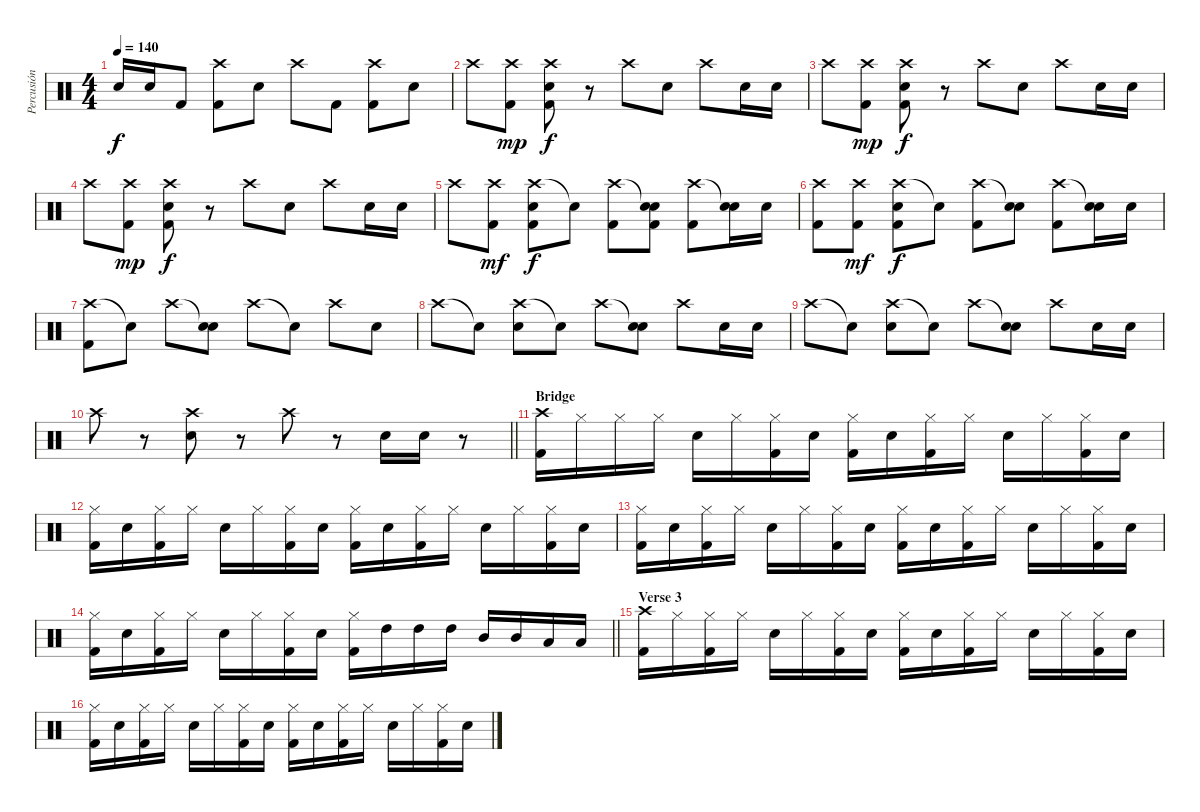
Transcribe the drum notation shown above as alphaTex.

\track ("Percusión" "Percusión") {instrument percussion}
\staff {score}
\articulation defaults
\ts (4 4)
\tempo 140
\clef neutral
\ks c "Electric Snare (hit)".16{dy f} "Electric Snare (hit)".16 "Kick (hit) 2".8
("Crash high (hit)" "Kick (hit) 2").8 "Electric Snare (hit)".8 "Crash high (hit)".8 "Kick (hit) 2".8 ("Crash high (hit)" "Kick (hit) 2").8 "Electric Snare (hit)".8 |
"Crash high (hit)".8 ("Crash high (hit)" "Kick (hit) 2").8{dy mp} ("Crash high (hit)" "Electric Snare (hit)" "Kick (hit) 2").8{dy f} r.8 "Crash high (hit)".8 "Electric Snare (hit)".8 "Crash high (hit)".8 "Electric Snare (hit)".16 "Electric Snare (hit)".16 |
"Crash high (hit)".8 ("Crash high (hit)" "Kick (hit) 2").8{dy mp} ("Crash high (hit)" "Electric Snare (hit)" "Kick (hit) 2").8{dy f} r.8 "Crash high (hit)".8 "Electric Snare (hit)".8 "Crash high (hit)".8 "Electric Snare (hit)".16 "Electric Snare (hit)".16 |
"Crash high (hit)".8 ("Crash high (hit)" "Kick (hit) 2").8{dy mp} ("Crash high (hit)" "Electric Snare (hit)" "Kick (hit) 2").8{dy f} r.8 "Crash high (hit)".8 "Electric Snare (hit)".8 "Crash high (hit)".8 "Electric Snare (hit)".16 "Electric Snare (hit)".16 |
"Crash high (hit)".8 ("Crash high (hit)" "Kick (hit) 2").8{dy mf} ("Crash high (hit)" "Electric Snare (hit)" "Kick (hit) 2").8{dy f} "Snare (hit)"{t}.8 ("Crash high (hit)" "Kick (hit) 2").8 ("Snare (hit)"{t} "Electric Snare (hit)" "Kick (hit) 2").8 ("Crash high (hit)" "Kick (hit) 2").8 ("Snare (hit)"{t} "Electric Snare (hit)").16 "Electric Snare (hit)".16 |
("Crash high (hit)" "Kick (hit) 2").8 ("Crash high (hit)" "Kick (hit) 2").8{dy mf} ("Crash high (hit)" "Electric Snare (hit)" "Kick (hit) 2").8{dy f} "Snare (hit)"{t}.8 ("Crash high (hit)" "Kick (hit) 2").8 ("Snare (hit)"{t} "Electric Snare (hit)").8 ("Crash high (hit)" "Kick (hit) 2").8 ("Snare (hit)"{t} "Electric Snare (hit)").16 "Electric Snare (hit)".16 |
("Crash high (hit)" "Kick (hit) 2").8 "Snare (hit)"{t}.8 "Crash high (hit)".8 ("Snare (hit)"{t} "Electric Snare (hit)").8 "Crash high (hit)".8 "Snare (hit)"{t}.8 "Crash high (hit)".8 "Electric Snare (hit)".8 |
"Crash high (hit)".8 "Snare (hit)"{t}.8 ("Crash high (hit)" "Electric Snare (hit)").8 "Snare (hit)"{t}.8 "Crash high (hit)".8 ("Snare (hit)"{t} "Electric Snare (hit)").8 "Crash high (hit)".8 "Electric Snare (hit)".16 "Electric Snare (hit)".16 |
"Crash high (hit)".8 "Snare (hit)"{t}.8 ("Crash high (hit)" "Electric Snare (hit)").8 "Snare (hit)"{t}.8 "Crash high (hit)".8 ("Snare (hit)"{t} "Electric Snare (hit)").8 "Crash high (hit)".8 "Electric Snare (hit)".16 "Electric Snare (hit)".16 |
\barLineRight lightlight "Crash high (hit)".8
r.8 ("Crash high (hit)" "Electric Snare (hit)").8 r.8 "Crash high (hit)".8 r.8 "Electric Snare (hit)".16 "Electric Snare (hit)".16 r.8 |
\section ("" "Bridge")
("Crash high (hit)" "Kick (hit) 2").16 "Hi-Hat (closed)".16 "Hi-Hat (closed)".16 "Hi-Hat (closed)".16 "Electric Snare (hit)".16 "Hi-Hat (closed)".16 ("Hi-Hat (closed)" "Kick (hit) 2").16 "Electric Snare (hit)".16 ("Hi-Hat (closed)" "Kick (hit) 2").16 "Electric Snare (hit)".16 ("Hi-Hat (closed)" "Kick (hit) 2").16 "Hi-Hat (closed)".16 "Electric Snare (hit)".16 "Hi-Hat (closed)".16 ("Hi-Hat (closed)" "Kick (hit) 2").16 "Electric Snare (hit)".16 |
("Hi-Hat (closed)" "Kick (hit) 2").16 "Electric Snare (hit)".16 ("Hi-Hat (closed)" "Kick (hit) 2").16 "Hi-Hat (closed)".16 "Electric Snare (hit)".16 "Hi-Hat (closed)".16 ("Hi-Hat (closed)" "Kick (hit) 2").16 "Electric Snare (hit)".16 ("Hi-Hat (closed)" "Kick (hit) 2").16 "Electric Snare (hit)".16 ("Hi-Hat (closed)" "Kick (hit) 2").16 "Hi-Hat (closed)".16 "Electric Snare (hit)".16 "Hi-Hat (closed)".16 ("Hi-Hat (closed)" "Kick (hit) 2").16 "Electric Snare (hit)".16 |
("Hi-Hat (closed)" "Kick (hit) 2").16 "Electric Snare (hit)".16 ("Hi-Hat (closed)" "Kick (hit) 2").16 "Hi-Hat (closed)".16 "Electric Snare (hit)".16 "Hi-Hat (closed)".16 ("Hi-Hat (closed)" "Kick (hit) 2").16 "Electric Snare (hit)".16 ("Hi-Hat (closed)" "Kick (hit) 2").16 "Electric Snare (hit)".16 ("Hi-Hat (closed)" "Kick (hit) 2").16 "Hi-Hat (closed)".16 "Electric Snare (hit)".16 "Hi-Hat (closed)".16 ("Hi-Hat (closed)" "Kick (hit) 2").16 "Electric Snare (hit)".16 |
\barLineRight lightlight
("Hi-Hat (closed)" "Kick (hit) 2").16 "Electric Snare (hit)".16 ("Hi-Hat (closed)" "Kick (hit) 2").16 "Hi-Hat (closed)".16 "Electric Snare (hit)".16 "Hi-Hat (closed)".16 ("Hi-Hat (closed)" "Kick (hit) 2").16 "Electric Snare (hit)".16 ("Hi-Hat (closed)" "Kick (hit) 2").16 "High Tom (hit)".16 "High Tom (hit)".16 "High Tom (hit)".16 "Mid Tom (hit)".16 "Mid Tom (hit)".16 "Low Tom (hit)".16 "Low Tom (hit)".16 |
\section ("" "Verse 3")
("Crash high (hit)" "Kick (hit) 2").16 "Hi-Hat (closed)".16 ("Hi-Hat (closed)" "Kick (hit) 2").16 "Hi-Hat (closed)".16 "Electric Snare (hit)".16 "Hi-Hat (closed)".16 ("Hi-Hat (closed)" "Kick (hit) 2").16 "Electric Snare (hit)".16 ("Hi-Hat (closed)" "Kick (hit) 2").16 "Electric Snare (hit)".16 ("Hi-Hat (closed)" "Kick (hit) 2").16 "Hi-Hat (closed)".16 "Electric Snare (hit)".16 "Hi-Hat (closed)".16 ("Hi-Hat (closed)" "Kick (hit) 2").16 "Electric Snare (hit)".16 |
("Hi-Hat (closed)" "Kick (hit) 2").16 "Electric Snare (hit)".16 ("Hi-Hat (closed)" "Kick (hit) 2").16 "Hi-Hat (closed)".16 "Electric Snare (hit)".16 "Hi-Hat (closed)".16 ("Hi-Hat (closed)" "Kick (hit) 2").16 "Electric Snare (hit)".16 ("Hi-Hat (closed)" "Kick (hit) 2").16 "Electric Snare (hit)".16 ("Hi-Hat (closed)" "Kick (hit) 2").16 "Hi-Hat (closed)".16 "Electric Snare (hit)".16 "Hi-Hat (closed)".16 ("Hi-Hat (closed)" "Kick (hit) 2").16 "Electric Snare (hit)".16
